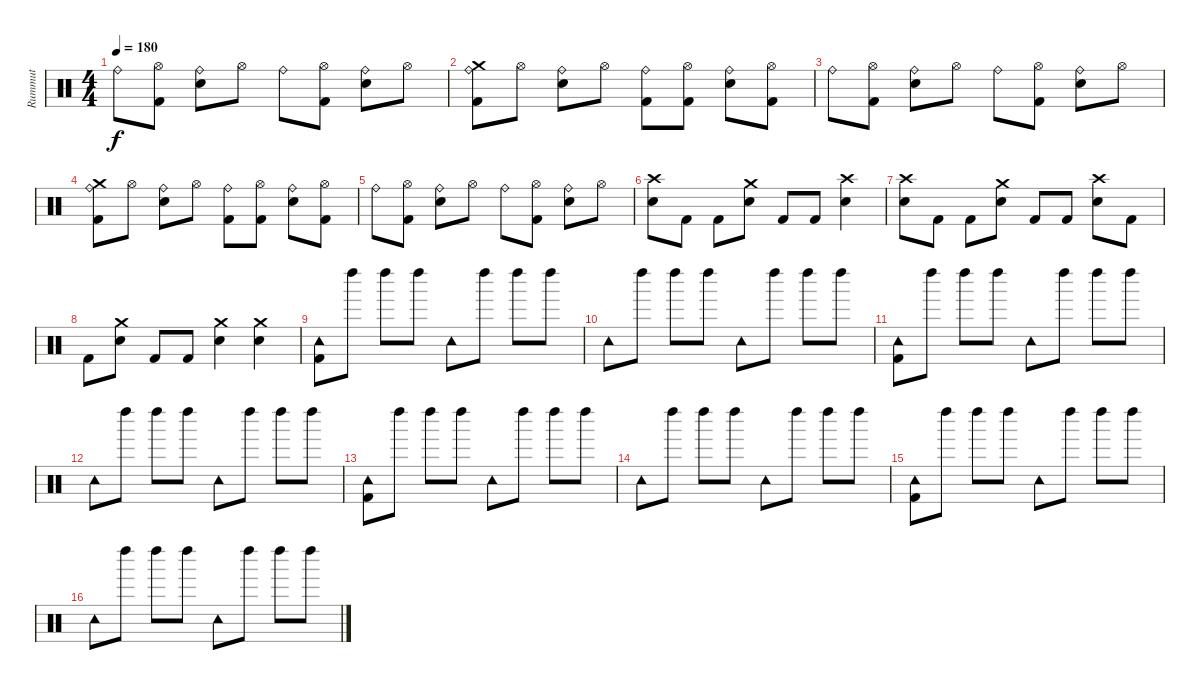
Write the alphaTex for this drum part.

\track ("Rummut" "Rummut") {instrument percussion}
\staff {score}
\articulation defaults
\ts (4 4)
\tempo 180
\clef neutral
\ks c "Ride (bell)".8{dy f}
("Hi-Hat (open)"{x} "Kick (hit) 2").8 ("Ride (bell)" "Snare (hit) 2").8 "Hi-Hat (open)"{x}.8 "Ride (bell)".8 ("Hi-Hat (open)"{x} "Kick (hit) 2").8 ("Ride (bell)" "Snare (hit) 2").8 "Hi-Hat (open)"{x}.8 |
("Ride (bell)" "Crash medium (hit)" "Kick (hit) 2").8 "Hi-Hat (open)"{x}.8 ("Ride (bell)" "Snare (hit) 2").8 "Hi-Hat (open)"{x}.8 ("Ride (bell)" "Kick (hit) 2").8 ("Hi-Hat (open)"{x} "Kick (hit) 2").8 ("Ride (bell)" "Snare (hit) 2").8 ("Hi-Hat (open)"{x} "Kick (hit) 2").8 |
"Ride (bell)".8 ("Hi-Hat (open)"{x} "Kick (hit) 2").8 ("Ride (bell)" "Snare (hit) 2").8 "Hi-Hat (open)"{x}.8 "Ride (bell)".8 ("Hi-Hat (open)"{x} "Kick (hit) 2").8 ("Ride (bell)" "Snare (hit) 2").8 "Hi-Hat (open)"{x}.8 |
("Ride (bell)" "Crash medium (hit)" "Kick (hit) 2").8 "Hi-Hat (open)"{x}.8 ("Ride (bell)" "Snare (hit) 2").8 "Hi-Hat (open)"{x}.8 ("Ride (bell)" "Kick (hit) 2").8 ("Hi-Hat (open)"{x} "Kick (hit) 2").8 ("Ride (bell)" "Snare (hit) 2").8 ("Hi-Hat (open)"{x} "Kick (hit) 2").8 |
"Ride (bell)".8 ("Hi-Hat (open)"{x} "Kick (hit) 2").8 ("Ride (bell)" "Snare (hit) 2").8 "Hi-Hat (open)"{x}.8 "Ride (bell)".8 ("Hi-Hat (open)"{x} "Kick (hit) 2").8 ("Ride (bell)" "Snare (hit) 2").8 "Hi-Hat (open)"{x}.8 |
("Crash high (hit)" "Snare (hit) 2").8 "Kick (hit) 2".8 "Kick (hit) 2".8 ("Crash medium (hit)" "Snare (hit) 2").8 "Kick (hit) 2".8 "Kick (hit) 2".8 ("Crash high (hit)" "Snare (hit) 2").4 |
("Crash high (hit)" "Snare (hit) 2").8 "Kick (hit) 2".8 "Kick (hit) 2".8 ("Crash medium (hit)" "Snare (hit) 2").8 "Kick (hit) 2".8 "Kick (hit) 2".8 ("Crash high (hit)" "Snare (hit) 2").8 "Kick (hit) 2".8 |
"Kick (hit) 2".8 ("Crash medium (hit)" "Snare (hit) 2").8 "Kick (hit) 2".8 "Kick (hit) 2".8 ("Crash medium (hit)" "Snare (hit) 2").4 ("Crash medium (hit)" "Snare (hit) 2").4 |
("Tambourine (hit)" "Kick (hit) 2").8 "Left Maraca (hit)".8 "Left Maraca (hit)".8 "Left Maraca (hit)".8 "Tambourine (hit)".8 "Left Maraca (hit)".8 "Left Maraca (hit)".8 "Left Maraca (hit)".8 |
"Tambourine (hit)".8 "Left Maraca (hit)".8 "Left Maraca (hit)".8 "Left Maraca (hit)".8 "Tambourine (hit)".8 "Left Maraca (hit)".8 "Left Maraca (hit)".8 "Left Maraca (hit)".8 |
("Tambourine (hit)" "Kick (hit) 2").8 "Left Maraca (hit)".8 "Left Maraca (hit)".8 "Left Maraca (hit)".8 "Tambourine (hit)".8 "Left Maraca (hit)".8 "Left Maraca (hit)".8 "Left Maraca (hit)".8 |
"Tambourine (hit)".8 "Left Maraca (hit)".8 "Left Maraca (hit)".8 "Left Maraca (hit)".8 "Tambourine (hit)".8 "Left Maraca (hit)".8 "Left Maraca (hit)".8 "Left Maraca (hit)".8 |
("Tambourine (hit)" "Kick (hit) 2").8 "Left Maraca (hit)".8 "Left Maraca (hit)".8 "Left Maraca (hit)".8 "Tambourine (hit)".8 "Left Maraca (hit)".8 "Left Maraca (hit)".8 "Left Maraca (hit)".8 |
"Tambourine (hit)".8 "Left Maraca (hit)".8 "Left Maraca (hit)".8 "Left Maraca (hit)".8 "Tambourine (hit)".8 "Left Maraca (hit)".8 "Left Maraca (hit)".8 "Left Maraca (hit)".8 |
("Tambourine (hit)" "Kick (hit) 2").8 "Left Maraca (hit)".8 "Left Maraca (hit)".8 "Left Maraca (hit)".8 "Tambourine (hit)".8 "Left Maraca (hit)".8 "Left Maraca (hit)".8 "Left Maraca (hit)".8 |
"Tambourine (hit)".8 "Left Maraca (hit)".8 "Left Maraca (hit)".8 "Left Maraca (hit)".8 "Tambourine (hit)".8 "Left Maraca (hit)".8 "Left Maraca (hit)".8 "Left Maraca (hit)".8
